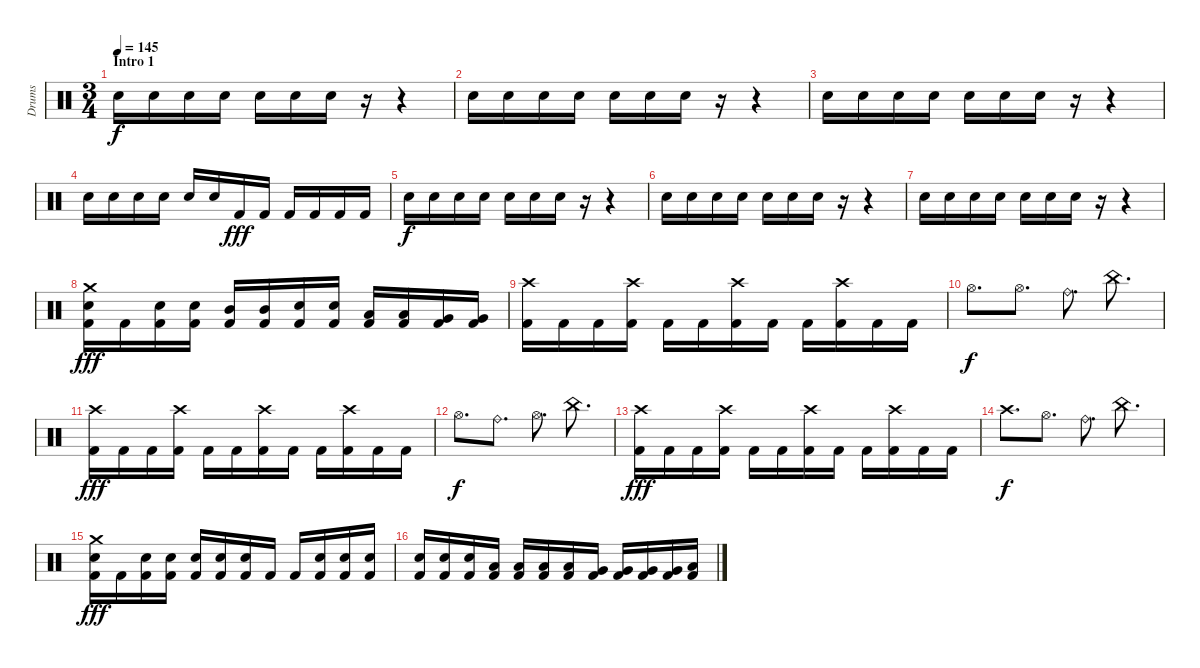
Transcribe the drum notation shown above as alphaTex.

\track ("Drums" "Drums") {instrument percussion}
\staff {score}
\articulation defaults
\ts (3 4)
\section ("" "Intro 1")
\tempo 145
\clef neutral
\ks c "Electric Snare (hit)".16{dy f} "Electric Snare (hit)".16 "Electric Snare (hit)".16 "Electric Snare (hit)".16 "Electric Snare (hit)".16 "Electric Snare (hit)".16 "Electric Snare (hit)".16
r.16 r.4 |
"Electric Snare (hit)".16 "Electric Snare (hit)".16 "Electric Snare (hit)".16 "Electric Snare (hit)".16 "Electric Snare (hit)".16 "Electric Snare (hit)".16 "Electric Snare (hit)".16 r.16 r.4 |
"Electric Snare (hit)".16 "Electric Snare (hit)".16 "Electric Snare (hit)".16 "Electric Snare (hit)".16 "Electric Snare (hit)".16 "Electric Snare (hit)".16 "Electric Snare (hit)".16 r.16 r.4 |
"Electric Snare (hit)".16 "Electric Snare (hit)".16 "Electric Snare (hit)".16 "Electric Snare (hit)".16 "Electric Snare (hit)".16 "Electric Snare (hit)".16 "Kick (hit) 2".16{dy fff} "Kick (hit) 2".16 "Kick (hit) 2".16 "Kick (hit) 2".16 "Kick (hit) 2".16 "Kick (hit) 2".16 |
"Electric Snare (hit)".16{dy f} "Electric Snare (hit)".16 "Electric Snare (hit)".16 "Electric Snare (hit)".16 "Electric Snare (hit)".16 "Electric Snare (hit)".16 "Electric Snare (hit)".16 r.16 r.4 |
"Electric Snare (hit)".16 "Electric Snare (hit)".16 "Electric Snare (hit)".16 "Electric Snare (hit)".16 "Electric Snare (hit)".16 "Electric Snare (hit)".16 "Electric Snare (hit)".16 r.16 r.4 |
"Electric Snare (hit)".16 "Electric Snare (hit)".16 "Electric Snare (hit)".16 "Electric Snare (hit)".16 "Electric Snare (hit)".16 "Electric Snare (hit)".16 "Electric Snare (hit)".16 r.16 r.4 |
("Crash medium (hit)" "Electric Snare (hit)" "Kick (hit) 2").16{dy fff} "Kick (hit) 2".16 ("Electric Snare (hit)" "Kick (hit) 2").16 ("Electric Snare (hit)" "Kick (hit) 2").16 ("Mid Tom (hit)" "Kick (hit) 2").16 ("Mid Tom (hit)" "Kick (hit) 2").16 ("Electric Snare (hit)" "Kick (hit) 2").16 ("Electric Snare (hit)" "Kick (hit) 2").16 ("Low Tom (hit)" "Kick (hit) 2").16 ("Low Tom (hit)" "Kick (hit) 2").16 ("Very Low Tom (hit)" "Kick (hit) 2").16 ("Very Low Tom (hit)" "Kick (hit) 2").16 |
("Crash high (hit)" "Kick (hit) 2").16 "Kick (hit) 2".16 "Kick (hit) 2".16 ("Crash high (hit)" "Kick (hit) 2").16 "Kick (hit) 2".16 "Kick (hit) 2".16 ("Crash high (hit)" "Kick (hit) 2").16 "Kick (hit) 2".16 "Kick (hit) 2".16 ("Crash high (hit)" "Kick (hit) 2").16 "Kick (hit) 2".16 "Kick (hit) 2".16 |
"Hi-Hat (open)".8{d dy f} "Hi-Hat (open)".8{d} "Ride (bell)".8{d} "China (hit)".8{d} |
("Crash high (hit)" "Kick (hit) 2").16{dy fff} "Kick (hit) 2".16 "Kick (hit) 2".16 ("Crash high (hit)" "Kick (hit) 2").16 "Kick (hit) 2".16 "Kick (hit) 2".16 ("Crash high (hit)" "Kick (hit) 2").16 "Kick (hit) 2".16 "Kick (hit) 2".16 ("Crash high (hit)" "Kick (hit) 2").16 "Kick (hit) 2".16 "Kick (hit) 2".16 |
"Hi-Hat (open)".8{d dy f} "Ride (bell)".8{d} "Hi-Hat (open)".8{d} "China (hit)".8{d} |
("Crash high (hit)" "Kick (hit) 2").16{dy fff} "Kick (hit) 2".16 "Kick (hit) 2".16 ("Crash high (hit)" "Kick (hit) 2").16 "Kick (hit) 2".16 "Kick (hit) 2".16 ("Crash high (hit)" "Kick (hit) 2").16 "Kick (hit) 2".16 "Kick (hit) 2".16 ("Crash high (hit)" "Kick (hit) 2").16 "Kick (hit) 2".16 "Kick (hit) 2".16 |
"Crash high (hit)".8{d dy f} "Hi-Hat (open)".8{d} "Ride (bell)".8{d} "China (hit)".8{d} |
("Crash medium (hit)" "Electric Snare (hit)" "Kick (hit) 2").16{dy fff} "Kick (hit) 2".16 ("Electric Snare (hit)" "Kick (hit) 2").16 ("Electric Snare (hit)" "Kick (hit) 2").16 ("Electric Snare (hit)" "Kick (hit) 2").16 ("Electric Snare (hit)" "Kick (hit) 2").16 ("Electric Snare (hit)" "Kick (hit) 2").16 "Kick (hit) 2".16 "Kick (hit) 2".16 ("Electric Snare (hit)" "Kick (hit) 2").16 ("Electric Snare (hit)" "Kick (hit) 2").16 ("Electric Snare (hit)" "Kick (hit) 2").16 |
("Electric Snare (hit)" "Kick (hit) 2").16 ("Electric Snare (hit)" "Kick (hit) 2").16 ("Electric Snare (hit)" "Kick (hit) 2").16 ("Low Tom (hit)" "Kick (hit) 2").16 ("Low Tom (hit)" "Kick (hit) 2").16 ("Low Tom (hit)" "Kick (hit) 2").16 ("Low Tom (hit)" "Kick (hit) 2").16 ("Very Low Tom (hit)" "Kick (hit) 2").16 ("Very Low Tom (hit)" "Kick (hit) 2").16 ("Very Low Tom (hit)" "Kick (hit) 2").16 ("Very Low Tom (hit)" "Kick (hit) 2").16 ("Low Floor Tom (hit)" "Kick (hit) 2").16
